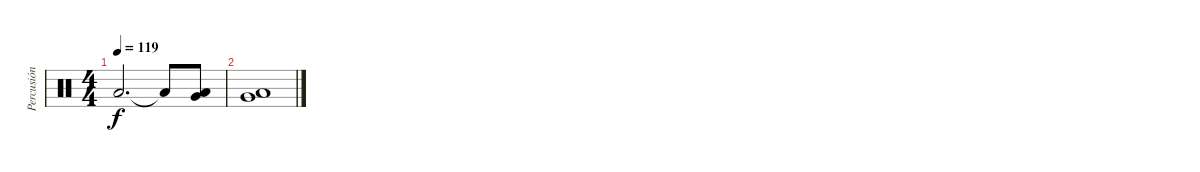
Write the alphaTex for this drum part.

\track ("Percusión" "Percusión") {mute instrument percussion}
\staff {score}
\articulation defaults
\ts (4 4)
\tempo 119
\clef neutral
\ks c "Low Floor Tom (hit)".2{d dy f} "Low Floor Tom (hit)"{t}.8
("Very Low Tom (hit)" "Low Floor Tom (hit)").8 |
("Low Floor Tom (hit)" "Very Low Tom (hit)").1
